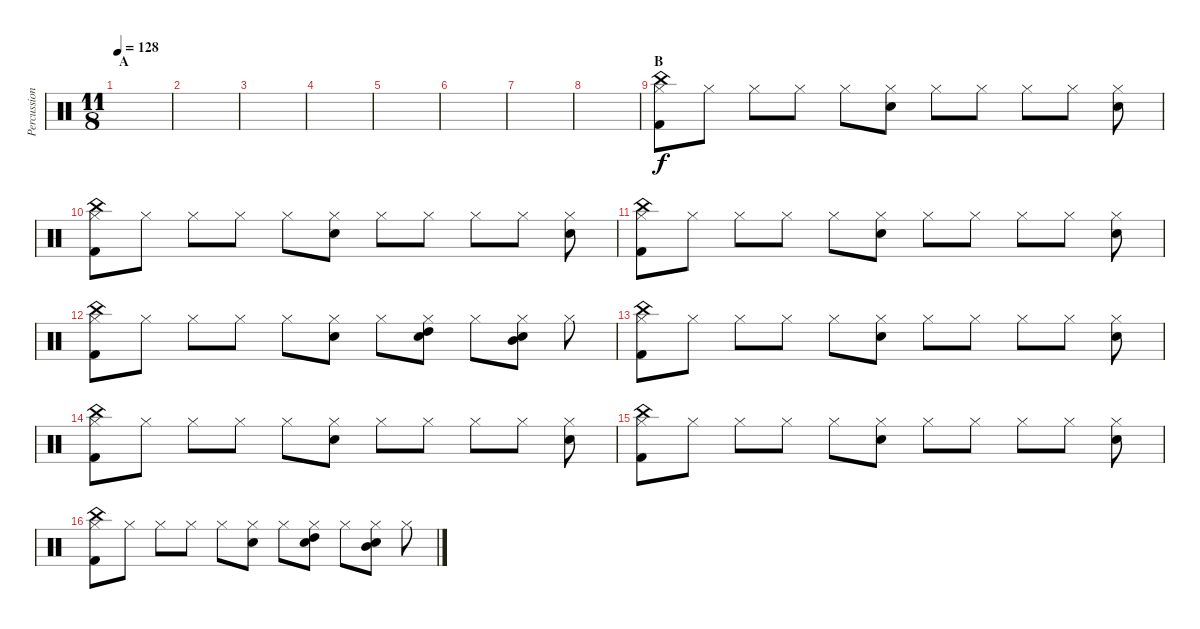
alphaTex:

\track ("Percussions" "Percussion") {instrument percussion}
\staff {score}
\articulation defaults
\ts (11 8)
\section ("" "A")
\tempo 128
\clef neutral
\ks c
|
|
|
|
|
|
|
|
\section ("" "B")
("Hi-Hat (closed)" "China (hit)" "Kick (hit) 2").8 "Hi-Hat (closed)".8 "Hi-Hat (closed)".8 "Hi-Hat (closed)".8 "Hi-Hat (closed)".8 ("Hi-Hat (closed)" "Electric Snare (hit)").8 "Hi-Hat (closed)".8 "Hi-Hat (closed)".8 "Hi-Hat (closed)".8 "Hi-Hat (closed)".8 ("Hi-Hat (closed)" "Electric Snare (hit)").8 |
("Hi-Hat (closed)" "China (hit)" "Kick (hit) 2").8 "Hi-Hat (closed)".8 "Hi-Hat (closed)".8 "Hi-Hat (closed)".8 "Hi-Hat (closed)".8 ("Hi-Hat (closed)" "Electric Snare (hit)").8 "Hi-Hat (closed)".8 "Hi-Hat (closed)".8 "Hi-Hat (closed)".8 "Hi-Hat (closed)".8 ("Hi-Hat (closed)" "Electric Snare (hit)").8 |
("Hi-Hat (closed)" "China (hit)" "Kick (hit) 2").8 "Hi-Hat (closed)".8 "Hi-Hat (closed)".8 "Hi-Hat (closed)".8 "Hi-Hat (closed)".8 ("Hi-Hat (closed)" "Electric Snare (hit)").8 "Hi-Hat (closed)".8 "Hi-Hat (closed)".8 "Hi-Hat (closed)".8 "Hi-Hat (closed)".8 ("Hi-Hat (closed)" "Electric Snare (hit)").8 |
("Hi-Hat (closed)" "China (hit)" "Kick (hit) 2").8 "Hi-Hat (closed)".8 "Hi-Hat (closed)".8 "Hi-Hat (closed)".8 "Hi-Hat (closed)".8 ("Hi-Hat (closed)" "Electric Snare (hit)").8 "Hi-Hat (closed)".8 ("Hi-Hat (closed)" "High Tom (hit)" "Electric Snare (hit)").8 "Hi-Hat (closed)".8 ("Hi-Hat (closed)" "Mid Tom (hit)" "Electric Snare (hit)").8 "Hi-Hat (closed)".8 |
("Hi-Hat (closed)" "China (hit)" "Kick (hit) 2").8 "Hi-Hat (closed)".8 "Hi-Hat (closed)".8 "Hi-Hat (closed)".8 "Hi-Hat (closed)".8 ("Hi-Hat (closed)" "Electric Snare (hit)").8 "Hi-Hat (closed)".8 "Hi-Hat (closed)".8 "Hi-Hat (closed)".8 "Hi-Hat (closed)".8 ("Hi-Hat (closed)" "Electric Snare (hit)").8 |
("Hi-Hat (closed)" "China (hit)" "Kick (hit) 2").8 "Hi-Hat (closed)".8 "Hi-Hat (closed)".8 "Hi-Hat (closed)".8 "Hi-Hat (closed)".8 ("Hi-Hat (closed)" "Electric Snare (hit)").8 "Hi-Hat (closed)".8 "Hi-Hat (closed)".8 "Hi-Hat (closed)".8 "Hi-Hat (closed)".8 ("Hi-Hat (closed)" "Electric Snare (hit)").8 |
("Hi-Hat (closed)" "China (hit)" "Kick (hit) 2").8 "Hi-Hat (closed)".8 "Hi-Hat (closed)".8 "Hi-Hat (closed)".8 "Hi-Hat (closed)".8 ("Hi-Hat (closed)" "Electric Snare (hit)").8 "Hi-Hat (closed)".8 "Hi-Hat (closed)".8 "Hi-Hat (closed)".8 "Hi-Hat (closed)".8 ("Hi-Hat (closed)" "Electric Snare (hit)").8 |
("Hi-Hat (closed)" "China (hit)" "Kick (hit) 2").8 "Hi-Hat (closed)".8 "Hi-Hat (closed)".8 "Hi-Hat (closed)".8 "Hi-Hat (closed)".8 ("Hi-Hat (closed)" "Electric Snare (hit)").8 "Hi-Hat (closed)".8 ("Hi-Hat (closed)" "High Tom (hit)" "Electric Snare (hit)").8 "Hi-Hat (closed)".8 ("Hi-Hat (closed)" "Mid Tom (hit)" "Electric Snare (hit)").8 "Hi-Hat (closed)".8
